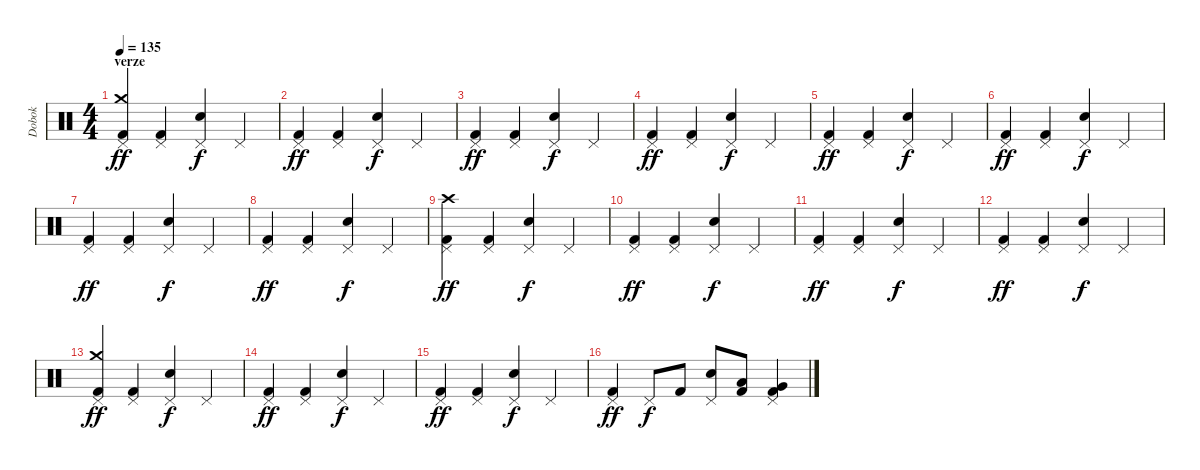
\track ("Dobok" "Dobok") {instrument percussion}
\staff {score}
\articulation defaults
\ts (4 4)
\section ("" "verze")
\tempo 135
\clef neutral
\ks c
("Pedal Hi-Hat (hit)" "Crash medium (hit)" "Kick (hit) 2").4{dy ff} ("Pedal Hi-Hat (hit)" "Kick (hit) 2").4 ("Pedal Hi-Hat (hit)" "Electric Snare (hit)").4{dy f} "Pedal Hi-Hat (hit)".4 |
("Pedal Hi-Hat (hit)" "Kick (hit) 2").4{dy ff} ("Pedal Hi-Hat (hit)" "Kick (hit) 2").4 ("Pedal Hi-Hat (hit)" "Electric Snare (hit)").4{dy f} "Pedal Hi-Hat (hit)".4 |
("Pedal Hi-Hat (hit)" "Kick (hit) 2").4{dy ff} ("Pedal Hi-Hat (hit)" "Kick (hit) 2").4 ("Pedal Hi-Hat (hit)" "Electric Snare (hit)").4{dy f} "Pedal Hi-Hat (hit)".4 |
("Pedal Hi-Hat (hit)" "Kick (hit) 2").4{dy ff} ("Pedal Hi-Hat (hit)" "Kick (hit) 2").4 ("Pedal Hi-Hat (hit)" "Electric Snare (hit)").4{dy f} "Pedal Hi-Hat (hit)".4 |
("Pedal Hi-Hat (hit)" "Kick (hit) 2").4{dy ff} ("Pedal Hi-Hat (hit)" "Kick (hit) 2").4 ("Pedal Hi-Hat (hit)" "Electric Snare (hit)").4{dy f} "Pedal Hi-Hat (hit)".4 |
("Pedal Hi-Hat (hit)" "Kick (hit) 2").4{dy ff} ("Pedal Hi-Hat (hit)" "Kick (hit) 2").4 ("Pedal Hi-Hat (hit)" "Electric Snare (hit)").4{dy f} "Pedal Hi-Hat (hit)".4 |
("Pedal Hi-Hat (hit)" "Kick (hit) 2").4{dy ff} ("Pedal Hi-Hat (hit)" "Kick (hit) 2").4 ("Pedal Hi-Hat (hit)" "Electric Snare (hit)").4{dy f} "Pedal Hi-Hat (hit)".4 |
("Pedal Hi-Hat (hit)" "Kick (hit) 2").4{dy ff} ("Pedal Hi-Hat (hit)" "Kick (hit) 2").4 ("Pedal Hi-Hat (hit)" "Electric Snare (hit)").4{dy f} "Pedal Hi-Hat (hit)".4 |
("Pedal Hi-Hat (hit)" "Crash high (hit)" "Kick (hit) 2").4{dy ff} ("Pedal Hi-Hat (hit)" "Kick (hit) 2").4 ("Pedal Hi-Hat (hit)" "Electric Snare (hit)").4{dy f} "Pedal Hi-Hat (hit)".4 |
("Pedal Hi-Hat (hit)" "Kick (hit) 2").4{dy ff} ("Pedal Hi-Hat (hit)" "Kick (hit) 2").4 ("Pedal Hi-Hat (hit)" "Electric Snare (hit)").4{dy f} "Pedal Hi-Hat (hit)".4 |
("Pedal Hi-Hat (hit)" "Kick (hit) 2").4{dy ff} ("Pedal Hi-Hat (hit)" "Kick (hit) 2").4 ("Pedal Hi-Hat (hit)" "Electric Snare (hit)").4{dy f} "Pedal Hi-Hat (hit)".4 |
("Pedal Hi-Hat (hit)" "Kick (hit) 2").4{dy ff} ("Pedal Hi-Hat (hit)" "Kick (hit) 2").4 ("Pedal Hi-Hat (hit)" "Electric Snare (hit)").4{dy f} "Pedal Hi-Hat (hit)".4 |
("Pedal Hi-Hat (hit)" "Crash medium (hit)" "Kick (hit) 2").4{dy ff} ("Pedal Hi-Hat (hit)" "Kick (hit) 2").4 ("Pedal Hi-Hat (hit)" "Electric Snare (hit)").4{dy f} "Pedal Hi-Hat (hit)".4 |
("Pedal Hi-Hat (hit)" "Kick (hit) 2").4{dy ff} ("Pedal Hi-Hat (hit)" "Kick (hit) 2").4 ("Pedal Hi-Hat (hit)" "Electric Snare (hit)").4{dy f} "Pedal Hi-Hat (hit)".4 |
("Pedal Hi-Hat (hit)" "Kick (hit) 2").4{dy ff} ("Pedal Hi-Hat (hit)" "Kick (hit) 2").4 ("Pedal Hi-Hat (hit)" "Electric Snare (hit)").4{dy f} "Pedal Hi-Hat (hit)".4 |
("Pedal Hi-Hat (hit)" "Kick (hit) 2").4{dy ff} "Pedal Hi-Hat (hit)".8{dy f} "Kick (hit) 2".8 ("Pedal Hi-Hat (hit)" "Electric Snare (hit)").8 ("Low Tom (hit)" "Kick (hit) 2").8 ("Pedal Hi-Hat (hit)" "Very Low Tom (hit)" "Kick (hit) 2").4
